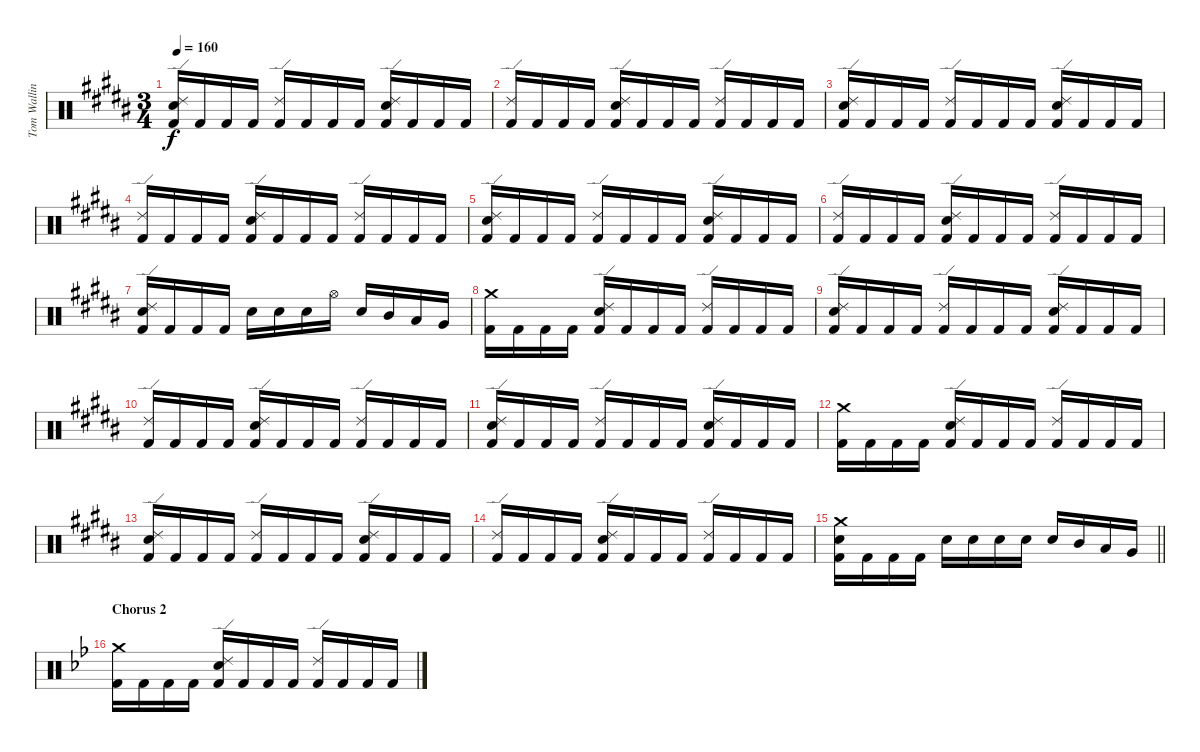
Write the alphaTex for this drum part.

\track ("Tom Walling (drums)" "Tom Wallin") {instrument percussion}
\staff {score}
\articulation defaults
\ts (3 4)
\tempo 160
\clef neutral
\ks g#minor
("Electric Snare (hit)" "Kick (hit) 2" "Ride (edge) 2").16{dy f} "Kick (hit) 2".16 "Kick (hit) 2".16 "Kick (hit) 2".16 ("Kick (hit) 2" "Ride (edge) 2").16 "Kick (hit) 2".16 "Kick (hit) 2".16 "Kick (hit) 2".16 ("Electric Snare (hit)" "Kick (hit) 2" "Ride (edge) 2").16 "Kick (hit) 2".16 "Kick (hit) 2".16 "Kick (hit) 2".16 |
("Ride (edge) 2" "Kick (hit) 2").16 "Kick (hit) 2".16 "Kick (hit) 2".16 "Kick (hit) 2".16 ("Electric Snare (hit)" "Kick (hit) 2" "Ride (edge) 2").16 "Kick (hit) 2".16 "Kick (hit) 2".16 "Kick (hit) 2".16 ("Kick (hit) 2" "Ride (edge) 2").16 "Kick (hit) 2".16 "Kick (hit) 2".16 "Kick (hit) 2".16 |
("Electric Snare (hit)" "Kick (hit) 2" "Ride (edge) 2").16 "Kick (hit) 2".16 "Kick (hit) 2".16 "Kick (hit) 2".16 ("Kick (hit) 2" "Ride (edge) 2").16 "Kick (hit) 2".16 "Kick (hit) 2".16 "Kick (hit) 2".16 ("Electric Snare (hit)" "Kick (hit) 2" "Ride (edge) 2").16 "Kick (hit) 2".16 "Kick (hit) 2".16 "Kick (hit) 2".16 |
("Ride (edge) 2" "Kick (hit) 2").16 "Kick (hit) 2".16 "Kick (hit) 2".16 "Kick (hit) 2".16 ("Electric Snare (hit)" "Kick (hit) 2" "Ride (edge) 2").16 "Kick (hit) 2".16 "Kick (hit) 2".16 "Kick (hit) 2".16 ("Kick (hit) 2" "Ride (edge) 2").16 "Kick (hit) 2".16 "Kick (hit) 2".16 "Kick (hit) 2".16 |
("Electric Snare (hit)" "Kick (hit) 2" "Ride (edge) 2").16 "Kick (hit) 2".16 "Kick (hit) 2".16 "Kick (hit) 2".16 ("Kick (hit) 2" "Ride (edge) 2").16 "Kick (hit) 2".16 "Kick (hit) 2".16 "Kick (hit) 2".16 ("Electric Snare (hit)" "Kick (hit) 2" "Ride (edge) 2").16 "Kick (hit) 2".16 "Kick (hit) 2".16 "Kick (hit) 2".16 |
("Ride (edge) 2" "Kick (hit) 2").16 "Kick (hit) 2".16 "Kick (hit) 2".16 "Kick (hit) 2".16 ("Electric Snare (hit)" "Kick (hit) 2" "Ride (edge) 2").16 "Kick (hit) 2".16 "Kick (hit) 2".16 "Kick (hit) 2".16 ("Kick (hit) 2" "Ride (edge) 2").16 "Kick (hit) 2".16 "Kick (hit) 2".16 "Kick (hit) 2".16 |
("Electric Snare (hit)" "Kick (hit) 2" "Ride (edge) 2").16 "Kick (hit) 2".16 "Kick (hit) 2".16 "Kick (hit) 2".16 "Electric Snare (hit)".16 "Electric Snare (hit)".16 "Electric Snare (hit)".16 "Hi-Hat (open)".16 "Electric Snare (hit)".16 "Mid Tom (hit)".16 "Low Tom (hit)".16 "Very Low Tom (hit)".16 |
("Kick (hit) 2" "Crash medium (hit)").16 "Kick (hit) 2".16 "Kick (hit) 2".16 "Kick (hit) 2".16 ("Electric Snare (hit)" "Kick (hit) 2" "Ride (edge) 2").16 "Kick (hit) 2".16 "Kick (hit) 2".16 "Kick (hit) 2".16 ("Kick (hit) 2" "Ride (edge) 2").16 "Kick (hit) 2".16 "Kick (hit) 2".16 "Kick (hit) 2".16 |
("Electric Snare (hit)" "Kick (hit) 2" "Ride (edge) 2").16 "Kick (hit) 2".16 "Kick (hit) 2".16 "Kick (hit) 2".16 ("Kick (hit) 2" "Ride (edge) 2").16 "Kick (hit) 2".16 "Kick (hit) 2".16 "Kick (hit) 2".16 ("Electric Snare (hit)" "Kick (hit) 2" "Ride (edge) 2").16 "Kick (hit) 2".16 "Kick (hit) 2".16 "Kick (hit) 2".16 |
("Ride (edge) 2" "Kick (hit) 2").16 "Kick (hit) 2".16 "Kick (hit) 2".16 "Kick (hit) 2".16 ("Electric Snare (hit)" "Kick (hit) 2" "Ride (edge) 2").16 "Kick (hit) 2".16 "Kick (hit) 2".16 "Kick (hit) 2".16 ("Kick (hit) 2" "Ride (edge) 2").16 "Kick (hit) 2".16 "Kick (hit) 2".16 "Kick (hit) 2".16 |
("Electric Snare (hit)" "Kick (hit) 2" "Ride (edge) 2").16 "Kick (hit) 2".16 "Kick (hit) 2".16 "Kick (hit) 2".16 ("Kick (hit) 2" "Ride (edge) 2").16 "Kick (hit) 2".16 "Kick (hit) 2".16 "Kick (hit) 2".16 ("Electric Snare (hit)" "Kick (hit) 2" "Ride (edge) 2").16 "Kick (hit) 2".16 "Kick (hit) 2".16 "Kick (hit) 2".16 |
("Kick (hit) 2" "Crash medium (hit)").16 "Kick (hit) 2".16 "Kick (hit) 2".16 "Kick (hit) 2".16 ("Electric Snare (hit)" "Kick (hit) 2" "Ride (edge) 2").16 "Kick (hit) 2".16 "Kick (hit) 2".16 "Kick (hit) 2".16 ("Kick (hit) 2" "Ride (edge) 2").16 "Kick (hit) 2".16 "Kick (hit) 2".16 "Kick (hit) 2".16 |
("Electric Snare (hit)" "Kick (hit) 2" "Ride (edge) 2").16 "Kick (hit) 2".16 "Kick (hit) 2".16 "Kick (hit) 2".16 ("Kick (hit) 2" "Ride (edge) 2").16 "Kick (hit) 2".16 "Kick (hit) 2".16 "Kick (hit) 2".16 ("Electric Snare (hit)" "Kick (hit) 2" "Ride (edge) 2").16 "Kick (hit) 2".16 "Kick (hit) 2".16 "Kick (hit) 2".16 |
("Ride (edge) 2" "Kick (hit) 2").16 "Kick (hit) 2".16 "Kick (hit) 2".16 "Kick (hit) 2".16 ("Electric Snare (hit)" "Kick (hit) 2" "Ride (edge) 2").16 "Kick (hit) 2".16 "Kick (hit) 2".16 "Kick (hit) 2".16 ("Kick (hit) 2" "Ride (edge) 2").16 "Kick (hit) 2".16 "Kick (hit) 2".16 "Kick (hit) 2".16 |
\barLineRight lightlight
("Crash medium (hit)" "Electric Snare (hit)" "Kick (hit) 2").16 "Kick (hit) 2".16 "Kick (hit) 2".16 "Kick (hit) 2".16 "Electric Snare (hit)".16 "Electric Snare (hit)".16 "Electric Snare (hit)".16 "Electric Snare (hit)".16 "Electric Snare (hit)".16 "Mid Tom (hit)".16 "Low Tom (hit)".16 "Very Low Tom (hit)".16 |
\section ("" "Chorus 2")
\ks gminor
("Kick (hit) 2" "Crash medium (hit)").16 "Kick (hit) 2".16 "Kick (hit) 2".16 "Kick (hit) 2".16 ("Electric Snare (hit)" "Kick (hit) 2" "Ride (edge) 2").16 "Kick (hit) 2".16 "Kick (hit) 2".16 "Kick (hit) 2".16 ("Kick (hit) 2" "Ride (edge) 2").16 "Kick (hit) 2".16 "Kick (hit) 2".16 "Kick (hit) 2".16
